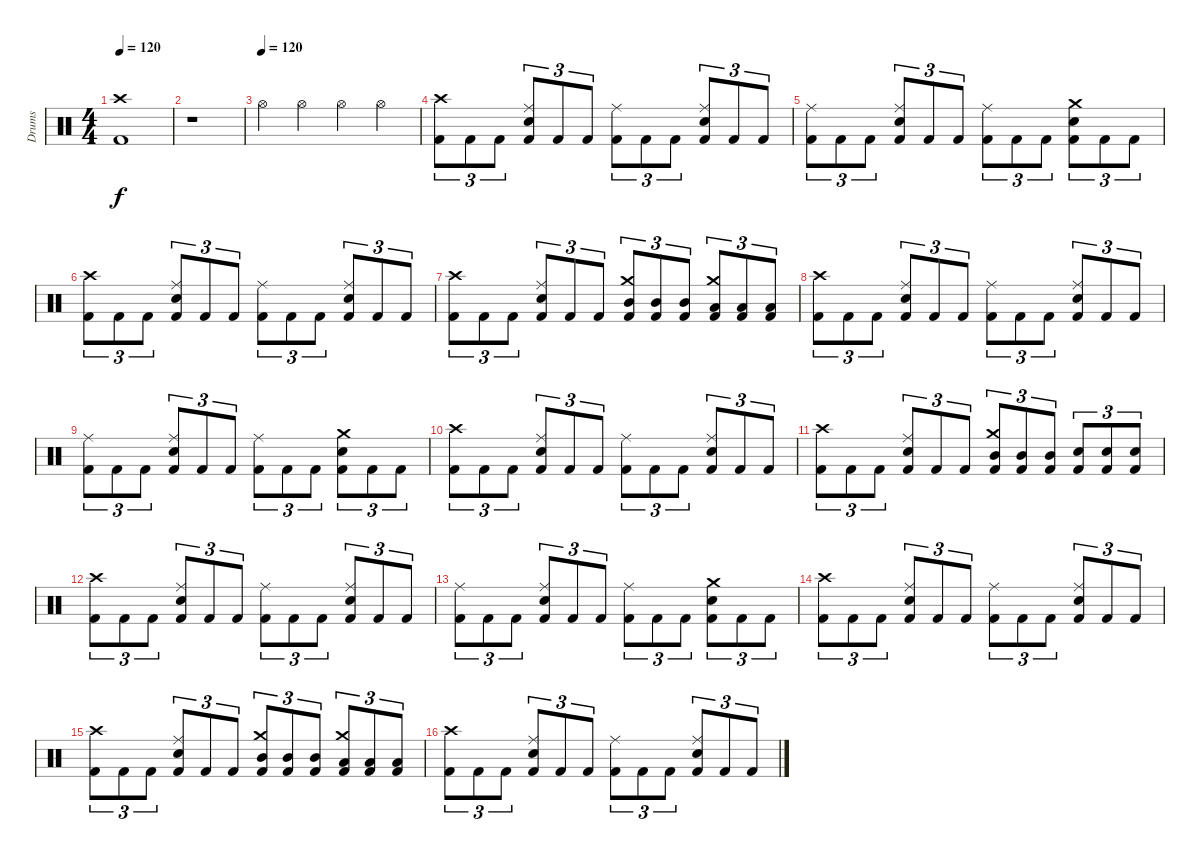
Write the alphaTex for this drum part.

\track ("Drums" "Drums") {instrument percussion}
\staff {score}
\articulation defaults
\ts (4 4)
\tempo 120
\clef neutral
\ks c
("Crash high (hit)" "Kick (hit) 2").1{dy f} |
r.1 |
\tempo (120)
"Hi-Hat (open)".4 "Hi-Hat (open)".4 "Hi-Hat (open)".4 "Hi-Hat (open)".4 |
("Crash high (hit)" "Kick (hit) 2").8{tu (3 2)} "Kick (hit) 2".8{tu (3 2)} "Kick (hit) 2".8{tu (3 2)} ("Ride (middle)" "Snare (hit) 2" "Kick (hit) 2").8{tu (3 2)} "Kick (hit) 2".8{tu (3 2)} "Kick (hit) 2".8{tu (3 2)} ("Ride (middle)" "Kick (hit) 2").8{tu (3 2)} "Kick (hit) 2".8{tu (3 2)} "Kick (hit) 2".8{tu (3 2)} ("Ride (middle)" "Snare (hit) 2" "Kick (hit) 2").8{tu (3 2)} "Kick (hit) 2".8{tu (3 2)} "Kick (hit) 2".8{tu (3 2)} |
("Ride (middle)" "Kick (hit) 2").8{tu (3 2)} "Kick (hit) 2".8{tu (3 2)} "Kick (hit) 2".8{tu (3 2)} ("Ride (middle)" "Snare (hit) 2" "Kick (hit) 2").8{tu (3 2)} "Kick (hit) 2".8{tu (3 2)} "Kick (hit) 2".8{tu (3 2)} ("Ride (middle)" "Kick (hit) 2").8{tu (3 2)} "Kick (hit) 2".8{tu (3 2)} "Kick (hit) 2".8{tu (3 2)} ("Crash medium (hit)" "Snare (hit) 2" "Kick (hit) 2").8{tu (3 2)} "Kick (hit) 2".8{tu (3 2)} "Kick (hit) 2".8{tu (3 2)} |
("Crash high (hit)" "Kick (hit) 2").8{tu (3 2)} "Kick (hit) 2".8{tu (3 2)} "Kick (hit) 2".8{tu (3 2)} ("Ride (middle)" "Snare (hit) 2" "Kick (hit) 2").8{tu (3 2)} "Kick (hit) 2".8{tu (3 2)} "Kick (hit) 2".8{tu (3 2)} ("Ride (middle)" "Kick (hit) 2").8{tu (3 2)} "Kick (hit) 2".8{tu (3 2)} "Kick (hit) 2".8{tu (3 2)} ("Ride (middle)" "Snare (hit) 2" "Kick (hit) 2").8{tu (3 2)} "Kick (hit) 2".8{tu (3 2)} "Kick (hit) 2".8{tu (3 2)} |
("Crash high (hit)" "Kick (hit) 2").8{tu (3 2)} "Kick (hit) 2".8{tu (3 2)} "Kick (hit) 2".8{tu (3 2)} ("Ride (middle)" "Snare (hit) 2" "Kick (hit) 2").8{tu (3 2)} "Kick (hit) 2".8{tu (3 2)} "Kick (hit) 2".8{tu (3 2)} ("Crash medium (hit)" "Mid Tom (hit)" "Kick (hit) 2").8{tu (3 2)} ("Mid Tom (hit)" "Kick (hit) 2").8{tu (3 2)} ("Mid Tom (hit)" "Kick (hit) 2").8{tu (3 2)} ("Crash medium (hit)" "Low Tom (hit)" "Kick (hit) 2").8{tu (3 2)} ("Low Tom (hit)" "Kick (hit) 2").8{tu (3 2)} ("Low Tom (hit)" "Kick (hit) 2").8{tu (3 2)} |
("Crash high (hit)" "Kick (hit) 2").8{tu (3 2)} "Kick (hit) 2".8{tu (3 2)} "Kick (hit) 2".8{tu (3 2)} ("Ride (middle)" "Snare (hit) 2" "Kick (hit) 2").8{tu (3 2)} "Kick (hit) 2".8{tu (3 2)} "Kick (hit) 2".8{tu (3 2)} ("Ride (middle)" "Kick (hit) 2").8{tu (3 2)} "Kick (hit) 2".8{tu (3 2)} "Kick (hit) 2".8{tu (3 2)} ("Ride (middle)" "Snare (hit) 2" "Kick (hit) 2").8{tu (3 2)} "Kick (hit) 2".8{tu (3 2)} "Kick (hit) 2".8{tu (3 2)} |
("Ride (middle)" "Kick (hit) 2").8{tu (3 2)} "Kick (hit) 2".8{tu (3 2)} "Kick (hit) 2".8{tu (3 2)} ("Ride (middle)" "Snare (hit) 2" "Kick (hit) 2").8{tu (3 2)} "Kick (hit) 2".8{tu (3 2)} "Kick (hit) 2".8{tu (3 2)} ("Ride (middle)" "Kick (hit) 2").8{tu (3 2)} "Kick (hit) 2".8{tu (3 2)} "Kick (hit) 2".8{tu (3 2)} ("Crash medium (hit)" "Snare (hit) 2" "Kick (hit) 2").8{tu (3 2)} "Kick (hit) 2".8{tu (3 2)} "Kick (hit) 2".8{tu (3 2)} |
("Crash high (hit)" "Kick (hit) 2").8{tu (3 2)} "Kick (hit) 2".8{tu (3 2)} "Kick (hit) 2".8{tu (3 2)} ("Ride (middle)" "Snare (hit) 2" "Kick (hit) 2").8{tu (3 2)} "Kick (hit) 2".8{tu (3 2)} "Kick (hit) 2".8{tu (3 2)} ("Ride (middle)" "Kick (hit) 2").8{tu (3 2)} "Kick (hit) 2".8{tu (3 2)} "Kick (hit) 2".8{tu (3 2)} ("Ride (middle)" "Snare (hit) 2" "Kick (hit) 2").8{tu (3 2)} "Kick (hit) 2".8{tu (3 2)} "Kick (hit) 2".8{tu (3 2)} |
("Crash high (hit)" "Kick (hit) 2").8{tu (3 2)} "Kick (hit) 2".8{tu (3 2)} "Kick (hit) 2".8{tu (3 2)} ("Ride (middle)" "Snare (hit) 2" "Kick (hit) 2").8{tu (3 2)} "Kick (hit) 2".8{tu (3 2)} "Kick (hit) 2".8{tu (3 2)} ("Crash medium (hit)" "Mid Tom (hit)" "Kick (hit) 2").8{tu (3 2)} ("Mid Tom (hit)" "Kick (hit) 2").8{tu (3 2)} ("Mid Tom (hit)" "Kick (hit) 2").8{tu (3 2)} ("Snare (hit) 2" "Kick (hit) 2").8{tu (3 2)} ("Snare (hit) 2" "Kick (hit) 2").8{tu (3 2)} ("Snare (hit) 2" "Kick (hit) 2").8{tu (3 2)} |
("Crash high (hit)" "Kick (hit) 2").8{tu (3 2)} "Kick (hit) 2".8{tu (3 2)} "Kick (hit) 2".8{tu (3 2)} ("Ride (middle)" "Snare (hit) 2" "Kick (hit) 2").8{tu (3 2)} "Kick (hit) 2".8{tu (3 2)} "Kick (hit) 2".8{tu (3 2)} ("Ride (middle)" "Kick (hit) 2").8{tu (3 2)} "Kick (hit) 2".8{tu (3 2)} "Kick (hit) 2".8{tu (3 2)} ("Ride (middle)" "Snare (hit) 2" "Kick (hit) 2").8{tu (3 2)} "Kick (hit) 2".8{tu (3 2)} "Kick (hit) 2".8{tu (3 2)} |
("Ride (middle)" "Kick (hit) 2").8{tu (3 2)} "Kick (hit) 2".8{tu (3 2)} "Kick (hit) 2".8{tu (3 2)} ("Ride (middle)" "Snare (hit) 2" "Kick (hit) 2").8{tu (3 2)} "Kick (hit) 2".8{tu (3 2)} "Kick (hit) 2".8{tu (3 2)} ("Ride (middle)" "Kick (hit) 2").8{tu (3 2)} "Kick (hit) 2".8{tu (3 2)} "Kick (hit) 2".8{tu (3 2)} ("Crash medium (hit)" "Snare (hit) 2" "Kick (hit) 2").8{tu (3 2)} "Kick (hit) 2".8{tu (3 2)} "Kick (hit) 2".8{tu (3 2)} |
("Crash high (hit)" "Kick (hit) 2").8{tu (3 2)} "Kick (hit) 2".8{tu (3 2)} "Kick (hit) 2".8{tu (3 2)} ("Ride (middle)" "Snare (hit) 2" "Kick (hit) 2").8{tu (3 2)} "Kick (hit) 2".8{tu (3 2)} "Kick (hit) 2".8{tu (3 2)} ("Ride (middle)" "Kick (hit) 2").8{tu (3 2)} "Kick (hit) 2".8{tu (3 2)} "Kick (hit) 2".8{tu (3 2)} ("Ride (middle)" "Snare (hit) 2" "Kick (hit) 2").8{tu (3 2)} "Kick (hit) 2".8{tu (3 2)} "Kick (hit) 2".8{tu (3 2)} |
("Crash high (hit)" "Kick (hit) 2").8{tu (3 2)} "Kick (hit) 2".8{tu (3 2)} "Kick (hit) 2".8{tu (3 2)} ("Ride (middle)" "Snare (hit) 2" "Kick (hit) 2").8{tu (3 2)} "Kick (hit) 2".8{tu (3 2)} "Kick (hit) 2".8{tu (3 2)} ("Crash medium (hit)" "Mid Tom (hit)" "Kick (hit) 2").8{tu (3 2)} ("Mid Tom (hit)" "Kick (hit) 2").8{tu (3 2)} ("Mid Tom (hit)" "Kick (hit) 2").8{tu (3 2)} ("Crash medium (hit)" "Low Tom (hit)" "Kick (hit) 2").8{tu (3 2)} ("Low Tom (hit)" "Kick (hit) 2").8{tu (3 2)} ("Low Tom (hit)" "Kick (hit) 2").8{tu (3 2)} |
("Crash high (hit)" "Kick (hit) 2").8{tu (3 2)} "Kick (hit) 2".8{tu (3 2)} "Kick (hit) 2".8{tu (3 2)} ("Ride (middle)" "Snare (hit) 2" "Kick (hit) 2").8{tu (3 2)} "Kick (hit) 2".8{tu (3 2)} "Kick (hit) 2".8{tu (3 2)} ("Ride (middle)" "Kick (hit) 2").8{tu (3 2)} "Kick (hit) 2".8{tu (3 2)} "Kick (hit) 2".8{tu (3 2)} ("Ride (middle)" "Snare (hit) 2" "Kick (hit) 2").8{tu (3 2)} "Kick (hit) 2".8{tu (3 2)} "Kick (hit) 2".8{tu (3 2)}
